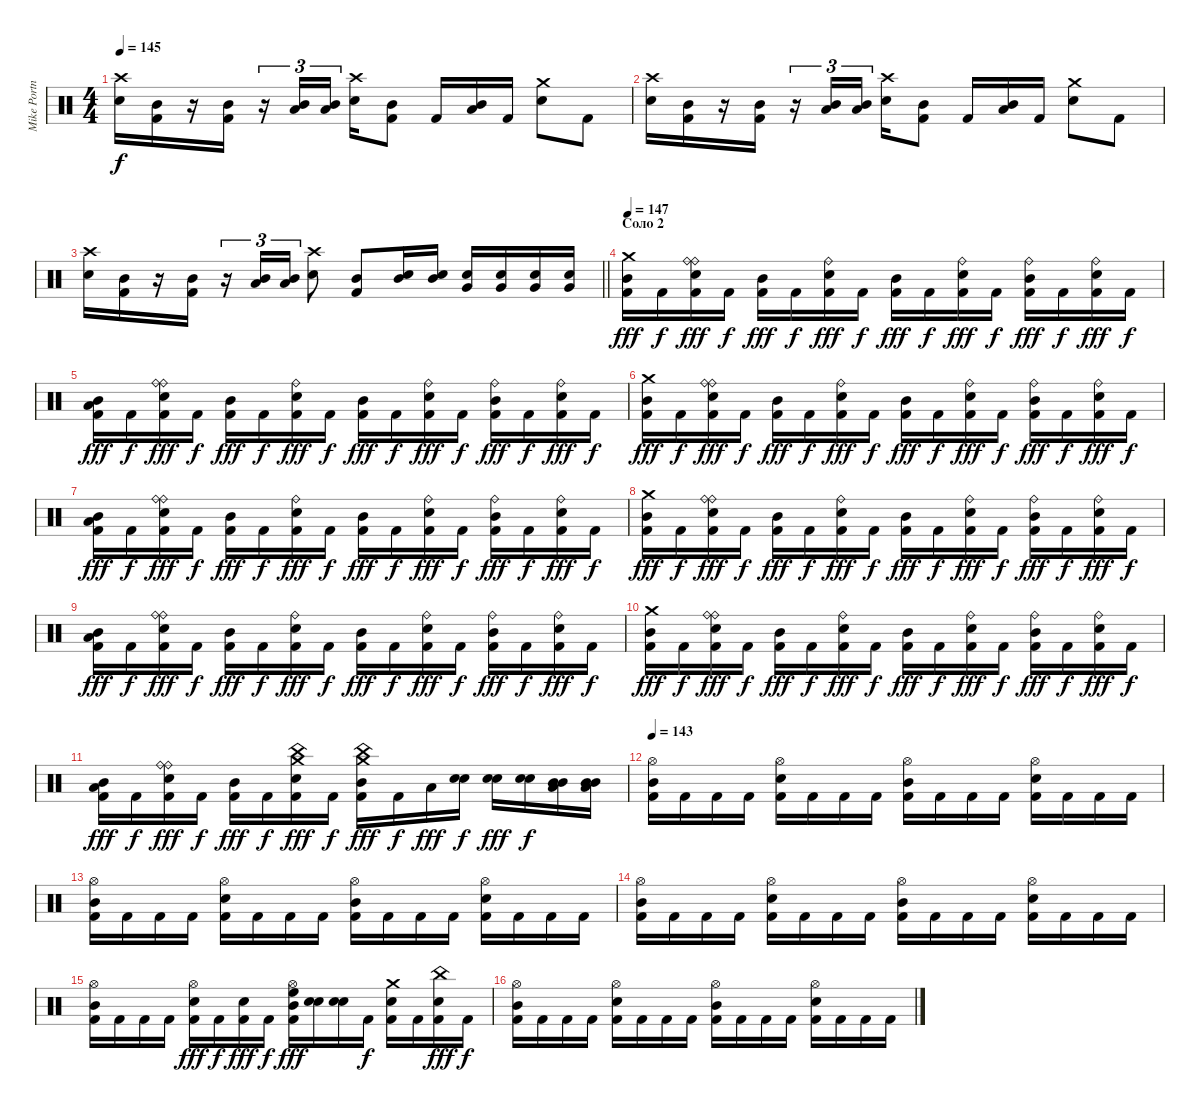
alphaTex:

\track ("Mike Portnoy" "Mike Portn") {instrument percussion}
\staff {score}
\articulation defaults
\ts (4 4)
\tempo 145
\clef neutral
\ks c
("Crash high (hit)" "Electric Snare (hit)").16{dy f} ("Mid Tom (hit)" "Kick (hit) 2").16 r.16 ("Mid Tom (hit)" "Kick (hit) 2").16 r.16{tu (3 2)} ("Mid Tom (hit)" "Low Tom (hit)").16{tu (3 2)} ("Mid Tom (hit)" "Low Tom (hit)").16{tu (3 2) beam splitsecondary} ("Crash high (hit)" "Electric Snare (hit)").16 ("Mid Tom (hit)" "Kick (hit) 2").8 "Kick (hit) 2".16 ("Mid Tom (hit)" "Low Tom (hit)").16 "Kick (hit) 2".16 ("Crash medium (hit)" "Electric Snare (hit)").8 "Kick (hit) 2".8 |
("Crash high (hit)" "Electric Snare (hit)").16 ("Mid Tom (hit)" "Kick (hit) 2").16 r.16 ("Mid Tom (hit)" "Kick (hit) 2").16 r.16{tu (3 2)} ("Mid Tom (hit)" "Low Tom (hit)").16{tu (3 2)} ("Mid Tom (hit)" "Low Tom (hit)").16{tu (3 2) beam splitsecondary} ("Crash high (hit)" "Electric Snare (hit)").16 ("Mid Tom (hit)" "Kick (hit) 2").8 "Kick (hit) 2".16 ("Mid Tom (hit)" "Low Tom (hit)").16 "Kick (hit) 2".16 ("Crash medium (hit)" "Electric Snare (hit)").8 "Kick (hit) 2".8 |
\barLineRight lightlight
("Crash high (hit)" "Electric Snare (hit)").16 ("Mid Tom (hit)" "Kick (hit) 2").16 r.16 ("Mid Tom (hit)" "Kick (hit) 2").16 r.16{tu (3 2)} ("Mid Tom (hit)" "Low Tom (hit)").16{tu (3 2)} ("Mid Tom (hit)" "Low Tom (hit)").16{tu (3 2)} ("Crash high (hit)" "Electric Snare (hit)").8 ("Mid Tom (hit)" "Kick (hit) 2").8 ("Mid Tom (hit)" "Electric Snare (hit)").16 ("Mid Tom (hit)" "Electric Snare (hit)").16 ("Very Low Tom (hit)" "Electric Snare (hit)").16 ("Very Low Tom (hit)" "Electric Snare (hit)").16 ("Very Low Tom (hit)" "Electric Snare (hit)").16 ("Very Low Tom (hit)" "Electric Snare (hit)").16 |
\section ("" "Соло 2")
\tempo 147
("Crash medium (hit)" "Mid Tom (hit)" "Kick (hit) 2").16{dy fff} "Kick (hit) 2".16{dy f} ("Ride (bell)" "Ride (bell)" "Electric Snare (hit)" "Kick (hit) 2").16{dy fff} "Kick (hit) 2".16{dy f} ("Mid Tom (hit)" "Kick (hit) 2").16{dy fff} "Kick (hit) 2".16{dy f} ("Ride (bell)" "Electric Snare (hit)" "Kick (hit) 2").16{dy fff} "Kick (hit) 2".16{dy f} ("Mid Tom (hit)" "Kick (hit) 2").16{dy fff} "Kick (hit) 2".16{dy f} ("Ride (bell)" "Electric Snare (hit)" "Kick (hit) 2").16{dy fff} "Kick (hit) 2".16{dy f} ("Ride (bell)" "Mid Tom (hit)" "Kick (hit) 2").16{dy fff} "Kick (hit) 2".16{dy f} ("Ride (bell)" "Electric Snare (hit)" "Kick (hit) 2").16{dy fff} "Kick (hit) 2".16{dy f} |
("Low Tom (hit)" "Mid Tom (hit)" "Kick (hit) 2").16{dy fff} "Kick (hit) 2".16{dy f} ("Ride (bell)" "Ride (bell)" "Electric Snare (hit)" "Kick (hit) 2").16{dy fff} "Kick (hit) 2".16{dy f} ("Mid Tom (hit)" "Kick (hit) 2").16{dy fff} "Kick (hit) 2".16{dy f} ("Ride (bell)" "Electric Snare (hit)" "Kick (hit) 2").16{dy fff} "Kick (hit) 2".16{dy f} ("Mid Tom (hit)" "Kick (hit) 2").16{dy fff} "Kick (hit) 2".16{dy f} ("Ride (bell)" "Electric Snare (hit)" "Kick (hit) 2").16{dy fff} "Kick (hit) 2".16{dy f} ("Ride (bell)" "Mid Tom (hit)" "Kick (hit) 2").16{dy fff} "Kick (hit) 2".16{dy f} ("Ride (bell)" "Electric Snare (hit)" "Kick (hit) 2").16{dy fff} "Kick (hit) 2".16{dy f} |
("Crash medium (hit)" "Mid Tom (hit)" "Kick (hit) 2").16{dy fff} "Kick (hit) 2".16{dy f} ("Ride (bell)" "Ride (bell)" "Electric Snare (hit)" "Kick (hit) 2").16{dy fff} "Kick (hit) 2".16{dy f} ("Mid Tom (hit)" "Kick (hit) 2").16{dy fff} "Kick (hit) 2".16{dy f} ("Ride (bell)" "Electric Snare (hit)" "Kick (hit) 2").16{dy fff} "Kick (hit) 2".16{dy f} ("Mid Tom (hit)" "Kick (hit) 2").16{dy fff} "Kick (hit) 2".16{dy f} ("Ride (bell)" "Electric Snare (hit)" "Kick (hit) 2").16{dy fff} "Kick (hit) 2".16{dy f} ("Ride (bell)" "Mid Tom (hit)" "Kick (hit) 2").16{dy fff} "Kick (hit) 2".16{dy f} ("Ride (bell)" "Electric Snare (hit)" "Kick (hit) 2").16{dy fff} "Kick (hit) 2".16{dy f} |
("Low Tom (hit)" "Mid Tom (hit)" "Kick (hit) 2").16{dy fff} "Kick (hit) 2".16{dy f} ("Ride (bell)" "Ride (bell)" "Electric Snare (hit)" "Kick (hit) 2").16{dy fff} "Kick (hit) 2".16{dy f} ("Mid Tom (hit)" "Kick (hit) 2").16{dy fff} "Kick (hit) 2".16{dy f} ("Ride (bell)" "Electric Snare (hit)" "Kick (hit) 2").16{dy fff} "Kick (hit) 2".16{dy f} ("Mid Tom (hit)" "Kick (hit) 2").16{dy fff} "Kick (hit) 2".16{dy f} ("Ride (bell)" "Electric Snare (hit)" "Kick (hit) 2").16{dy fff} "Kick (hit) 2".16{dy f} ("Ride (bell)" "Mid Tom (hit)" "Kick (hit) 2").16{dy fff} "Kick (hit) 2".16{dy f} ("Ride (bell)" "Electric Snare (hit)" "Kick (hit) 2").16{dy fff} "Kick (hit) 2".16{dy f} |
("Crash medium (hit)" "Mid Tom (hit)" "Kick (hit) 2").16{dy fff} "Kick (hit) 2".16{dy f} ("Ride (bell)" "Ride (bell)" "Electric Snare (hit)" "Kick (hit) 2").16{dy fff} "Kick (hit) 2".16{dy f} ("Mid Tom (hit)" "Kick (hit) 2").16{dy fff} "Kick (hit) 2".16{dy f} ("Ride (bell)" "Electric Snare (hit)" "Kick (hit) 2").16{dy fff} "Kick (hit) 2".16{dy f} ("Mid Tom (hit)" "Kick (hit) 2").16{dy fff} "Kick (hit) 2".16{dy f} ("Ride (bell)" "Electric Snare (hit)" "Kick (hit) 2").16{dy fff} "Kick (hit) 2".16{dy f} ("Ride (bell)" "Mid Tom (hit)" "Kick (hit) 2").16{dy fff} "Kick (hit) 2".16{dy f} ("Ride (bell)" "Electric Snare (hit)" "Kick (hit) 2").16{dy fff} "Kick (hit) 2".16{dy f} |
("Low Tom (hit)" "Mid Tom (hit)" "Kick (hit) 2").16{dy fff} "Kick (hit) 2".16{dy f} ("Ride (bell)" "Ride (bell)" "Electric Snare (hit)" "Kick (hit) 2").16{dy fff} "Kick (hit) 2".16{dy f} ("Mid Tom (hit)" "Kick (hit) 2").16{dy fff} "Kick (hit) 2".16{dy f} ("Ride (bell)" "Electric Snare (hit)" "Kick (hit) 2").16{dy fff} "Kick (hit) 2".16{dy f} ("Mid Tom (hit)" "Kick (hit) 2").16{dy fff} "Kick (hit) 2".16{dy f} ("Ride (bell)" "Electric Snare (hit)" "Kick (hit) 2").16{dy fff} "Kick (hit) 2".16{dy f} ("Ride (bell)" "Mid Tom (hit)" "Kick (hit) 2").16{dy fff} "Kick (hit) 2".16{dy f} ("Ride (bell)" "Electric Snare (hit)" "Kick (hit) 2").16{dy fff} "Kick (hit) 2".16{dy f} |
("Crash medium (hit)" "Mid Tom (hit)" "Kick (hit) 2").16{dy fff} "Kick (hit) 2".16{dy f} ("Ride (bell)" "Ride (bell)" "Electric Snare (hit)" "Kick (hit) 2").16{dy fff} "Kick (hit) 2".16{dy f} ("Mid Tom (hit)" "Kick (hit) 2").16{dy fff} "Kick (hit) 2".16{dy f} ("Ride (bell)" "Electric Snare (hit)" "Kick (hit) 2").16{dy fff} "Kick (hit) 2".16{dy f} ("Mid Tom (hit)" "Kick (hit) 2").16{dy fff} "Kick (hit) 2".16{dy f} ("Ride (bell)" "Electric Snare (hit)" "Kick (hit) 2").16{dy fff} "Kick (hit) 2".16{dy f} ("Ride (bell)" "Mid Tom (hit)" "Kick (hit) 2").16{dy fff} "Kick (hit) 2".16{dy f} ("Ride (bell)" "Electric Snare (hit)" "Kick (hit) 2").16{dy fff} "Kick (hit) 2".16{dy f} |
("Low Tom (hit)" "Mid Tom (hit)" "Kick (hit) 2").16{dy fff} "Kick (hit) 2".16{dy f} ("Ride (bell)" "Ride (bell)" "Electric Snare (hit)" "Kick (hit) 2").16{dy fff} "Kick (hit) 2".16{dy f} ("Mid Tom (hit)" "Kick (hit) 2").16{dy fff} "Kick (hit) 2".16{dy f} ("China (hit)" "Crash medium (hit)" "Electric Snare (hit)" "Kick (hit) 2").16{dy fff} "Kick (hit) 2".16{dy f} ("China (hit)" "Crash medium (hit)" "Mid Tom (hit)" "Kick (hit) 2").16{dy fff} "Kick (hit) 2".16{dy f} "Low Tom (hit)".16{dy fff} ("Electric Snare (hit)" "Electric Snare (hit)").16{dy f} ("Electric Snare (hit)" "Electric Snare (hit)").16{dy fff} ("Electric Snare (hit)" "Electric Snare (hit)").16{dy f} ("Mid Tom (hit)" "Mid Tom (hit)" "Low Tom (hit)").16 ("Mid Tom (hit)" "Mid Tom (hit)" "Low Tom (hit)").16 |
\tempo 143
("Hi-Hat (open)" "Mid Tom (hit)" "Kick (hit) 2").16 "Kick (hit) 2".16 "Kick (hit) 2".16 "Kick (hit) 2".16 ("Hi-Hat (open)" "Electric Snare (hit)" "Kick (hit) 2").16 "Kick (hit) 2".16 "Kick (hit) 2".16 "Kick (hit) 2".16 ("Hi-Hat (open)" "Mid Tom (hit)" "Kick (hit) 2").16 "Kick (hit) 2".16 "Kick (hit) 2".16 "Kick (hit) 2".16 ("Hi-Hat (open)" "Electric Snare (hit)" "Kick (hit) 2").16 "Kick (hit) 2".16 "Kick (hit) 2".16 "Kick (hit) 2".16 |
("Hi-Hat (open)" "Mid Tom (hit)" "Kick (hit) 2").16 "Kick (hit) 2".16 "Kick (hit) 2".16 "Kick (hit) 2".16 ("Hi-Hat (open)" "Electric Snare (hit)" "Kick (hit) 2").16 "Kick (hit) 2".16 "Kick (hit) 2".16 "Kick (hit) 2".16 ("Hi-Hat (open)" "Mid Tom (hit)" "Kick (hit) 2").16 "Kick (hit) 2".16 "Kick (hit) 2".16 "Kick (hit) 2".16 ("Hi-Hat (open)" "Electric Snare (hit)" "Kick (hit) 2").16 "Kick (hit) 2".16 "Kick (hit) 2".16 "Kick (hit) 2".16 |
("Hi-Hat (open)" "Mid Tom (hit)" "Kick (hit) 2").16 "Kick (hit) 2".16 "Kick (hit) 2".16 "Kick (hit) 2".16 ("Hi-Hat (open)" "Electric Snare (hit)" "Kick (hit) 2").16 "Kick (hit) 2".16 "Kick (hit) 2".16 "Kick (hit) 2".16 ("Hi-Hat (open)" "Mid Tom (hit)" "Kick (hit) 2").16 "Kick (hit) 2".16 "Kick (hit) 2".16 "Kick (hit) 2".16 ("Hi-Hat (open)" "Electric Snare (hit)" "Kick (hit) 2").16 "Kick (hit) 2".16 "Kick (hit) 2".16 "Kick (hit) 2".16 |
("Hi-Hat (open)" "Mid Tom (hit)" "Kick (hit) 2").16 "Kick (hit) 2".16 "Kick (hit) 2".16 "Kick (hit) 2".16 ("Hi-Hat (open)" "Electric Snare (hit)" "Kick (hit) 2").16{dy fff} "Kick (hit) 2".16{dy f} ("Electric Snare (hit)" "Kick (hit) 2").16{dy fff} "Kick (hit) 2".16{dy f} ("Hi-Hat (open)" "Mid Tom (hit)" "Kick (hit) 2" "High Floor Tom (hit)").16{dy fff} ("Electric Snare (hit)" "Electric Snare (hit)").16 ("Electric Snare (hit)" "Electric Snare (hit)").16 "Kick (hit) 2".16{dy f} ("Crash medium (hit)" "Electric Snare (hit)" "Kick (hit) 2").16 "Kick (hit) 2".16 ("China (hit)" "Electric Snare (hit)" "Kick (hit) 2").16{dy fff} "Kick (hit) 2".16{dy f} |
("Hi-Hat (open)" "Mid Tom (hit)" "Kick (hit) 2").16 "Kick (hit) 2".16 "Kick (hit) 2".16 "Kick (hit) 2".16 ("Hi-Hat (open)" "Electric Snare (hit)" "Kick (hit) 2").16 "Kick (hit) 2".16 "Kick (hit) 2".16 "Kick (hit) 2".16 ("Hi-Hat (open)" "Mid Tom (hit)" "Kick (hit) 2").16 "Kick (hit) 2".16 "Kick (hit) 2".16 "Kick (hit) 2".16 ("Hi-Hat (open)" "Electric Snare (hit)" "Kick (hit) 2").16 "Kick (hit) 2".16 "Kick (hit) 2".16 "Kick (hit) 2".16
